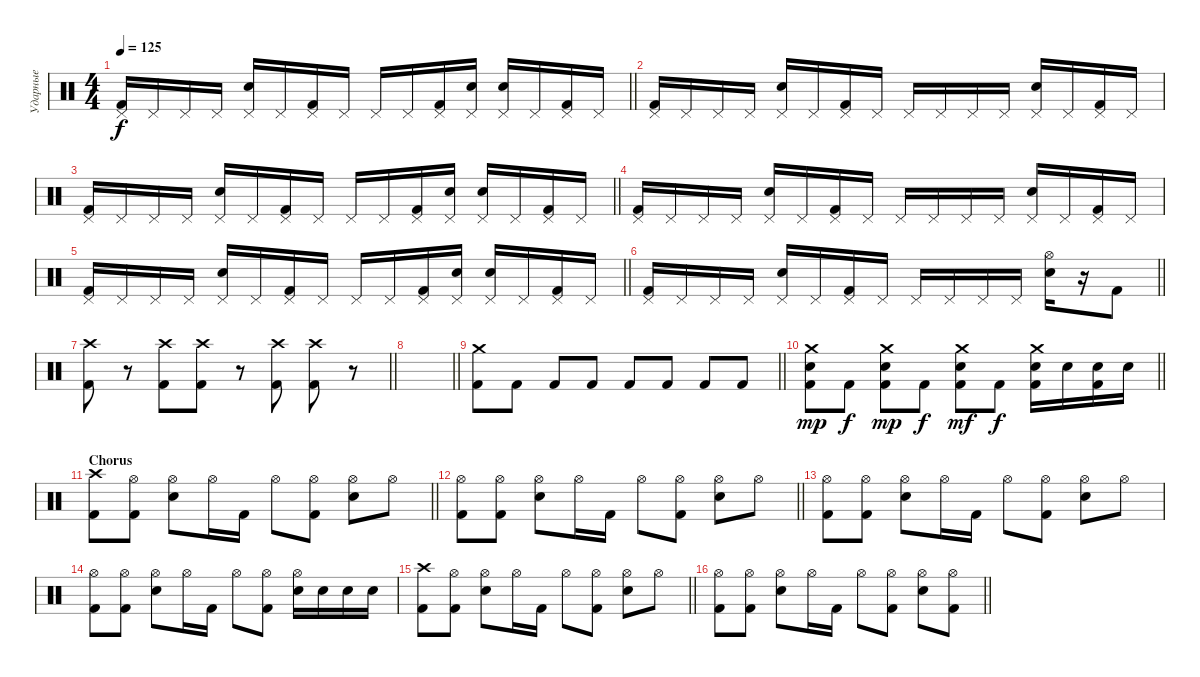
\track ("Ударные" "Ударные") {instrument percussion}
\staff {score}
\articulation defaults
\ts (4 4)
\tempo 125
\clef neutral
\barLineRight lightlight
\ks c
("Pedal Hi-Hat (hit)" "Kick (hit) 2").16{dy f} "Pedal Hi-Hat (hit)".16 "Pedal Hi-Hat (hit)".16 "Pedal Hi-Hat (hit)".16 ("Pedal Hi-Hat (hit)" "Electric Snare (hit)").16 "Pedal Hi-Hat (hit)".16 ("Pedal Hi-Hat (hit)" "Kick (hit) 2").16 "Pedal Hi-Hat (hit)".16 "Pedal Hi-Hat (hit)".16 "Pedal Hi-Hat (hit)".16 ("Pedal Hi-Hat (hit)" "Kick (hit) 2").16 ("Pedal Hi-Hat (hit)" "Electric Snare (hit)").16 ("Pedal Hi-Hat (hit)" "Electric Snare (hit)").16 "Pedal Hi-Hat (hit)".16 ("Pedal Hi-Hat (hit)" "Kick (hit) 2").16 "Pedal Hi-Hat (hit)".16 |
("Pedal Hi-Hat (hit)" "Kick (hit) 2").16 "Pedal Hi-Hat (hit)".16 "Pedal Hi-Hat (hit)".16 "Pedal Hi-Hat (hit)".16 ("Pedal Hi-Hat (hit)" "Electric Snare (hit)").16 "Pedal Hi-Hat (hit)".16 ("Pedal Hi-Hat (hit)" "Kick (hit) 2").16 "Pedal Hi-Hat (hit)".16 "Pedal Hi-Hat (hit)".16 "Pedal Hi-Hat (hit)".16 "Pedal Hi-Hat (hit)".16 "Pedal Hi-Hat (hit)".16 ("Pedal Hi-Hat (hit)" "Electric Snare (hit)").16 "Pedal Hi-Hat (hit)".16 ("Pedal Hi-Hat (hit)" "Kick (hit) 2").16 "Pedal Hi-Hat (hit)".16 |
\barLineRight lightlight
("Pedal Hi-Hat (hit)" "Kick (hit) 2").16 "Pedal Hi-Hat (hit)".16 "Pedal Hi-Hat (hit)".16 "Pedal Hi-Hat (hit)".16 ("Pedal Hi-Hat (hit)" "Electric Snare (hit)").16 "Pedal Hi-Hat (hit)".16 ("Pedal Hi-Hat (hit)" "Kick (hit) 2").16 "Pedal Hi-Hat (hit)".16 "Pedal Hi-Hat (hit)".16 "Pedal Hi-Hat (hit)".16 ("Pedal Hi-Hat (hit)" "Kick (hit) 2").16 ("Pedal Hi-Hat (hit)" "Electric Snare (hit)").16 ("Pedal Hi-Hat (hit)" "Electric Snare (hit)").16 "Pedal Hi-Hat (hit)".16 ("Pedal Hi-Hat (hit)" "Kick (hit) 2").16 "Pedal Hi-Hat (hit)".16 |
("Pedal Hi-Hat (hit)" "Kick (hit) 2").16 "Pedal Hi-Hat (hit)".16 "Pedal Hi-Hat (hit)".16 "Pedal Hi-Hat (hit)".16 ("Pedal Hi-Hat (hit)" "Electric Snare (hit)").16 "Pedal Hi-Hat (hit)".16 ("Pedal Hi-Hat (hit)" "Kick (hit) 2").16 "Pedal Hi-Hat (hit)".16 "Pedal Hi-Hat (hit)".16 "Pedal Hi-Hat (hit)".16 "Pedal Hi-Hat (hit)".16 "Pedal Hi-Hat (hit)".16 ("Pedal Hi-Hat (hit)" "Electric Snare (hit)").16 "Pedal Hi-Hat (hit)".16 ("Pedal Hi-Hat (hit)" "Kick (hit) 2").16 "Pedal Hi-Hat (hit)".16 |
\barLineRight lightlight
("Pedal Hi-Hat (hit)" "Kick (hit) 2").16 "Pedal Hi-Hat (hit)".16 "Pedal Hi-Hat (hit)".16 "Pedal Hi-Hat (hit)".16 ("Pedal Hi-Hat (hit)" "Electric Snare (hit)").16 "Pedal Hi-Hat (hit)".16 ("Pedal Hi-Hat (hit)" "Kick (hit) 2").16 "Pedal Hi-Hat (hit)".16 "Pedal Hi-Hat (hit)".16 "Pedal Hi-Hat (hit)".16 ("Pedal Hi-Hat (hit)" "Kick (hit) 2").16 ("Pedal Hi-Hat (hit)" "Electric Snare (hit)").16 ("Pedal Hi-Hat (hit)" "Electric Snare (hit)").16 "Pedal Hi-Hat (hit)".16 ("Pedal Hi-Hat (hit)" "Kick (hit) 2").16 "Pedal Hi-Hat (hit)".16 |
\barLineRight lightlight
("Pedal Hi-Hat (hit)" "Kick (hit) 2").16 "Pedal Hi-Hat (hit)".16 "Pedal Hi-Hat (hit)".16 "Pedal Hi-Hat (hit)".16 ("Pedal Hi-Hat (hit)" "Electric Snare (hit)").16 "Pedal Hi-Hat (hit)".16 ("Pedal Hi-Hat (hit)" "Kick (hit) 2").16 "Pedal Hi-Hat (hit)".16 "Pedal Hi-Hat (hit)".16 "Pedal Hi-Hat (hit)".16 "Pedal Hi-Hat (hit)".16 "Pedal Hi-Hat (hit)".16 ("Hi-Hat (open)" "Electric Snare (hit)").16 r.16 "Kick (hit) 2".8 |
\barLineRight lightlight
("Crash high (hit)" "Kick (hit) 2").8 r.8 ("Crash high (hit)" "Kick (hit) 2").8 ("Crash high (hit)" "Kick (hit) 2").8 r.8 ("Crash high (hit)" "Kick (hit) 2").8 ("Crash high (hit)" "Kick (hit) 2").8 r.8 |
\barLineRight lightlight
|
\barLineRight lightlight
("Crash medium (hit)" "Kick (hit) 2").8 "Kick (hit) 2".8 "Kick (hit) 2".8 "Kick (hit) 2".8 "Kick (hit) 2".8 "Kick (hit) 2".8 "Kick (hit) 2".8 "Kick (hit) 2".8 |
\barLineRight lightlight
("Crash medium (hit)" "Electric Snare (hit)" "Kick (hit) 2").8{dy mp} "Kick (hit) 2".8{dy f} ("Crash medium (hit)" "Electric Snare (hit)" "Kick (hit) 2").8{dy mp} "Kick (hit) 2".8{dy f} ("Crash medium (hit)" "Electric Snare (hit)" "Kick (hit) 2").8{dy mf} "Kick (hit) 2".8{dy f} ("Crash medium (hit)" "Electric Snare (hit)" "Kick (hit) 2").16 "Electric Snare (hit)".16 ("Electric Snare (hit)" "Kick (hit) 2").16 "Electric Snare (hit)".16 |
\section ("" "Chorus")
\barLineRight lightlight
("Crash high (hit)" "Kick (hit) 2").8 ("Hi-Hat (open)" "Kick (hit) 2").8 ("Hi-Hat (open)" "Electric Snare (hit)").8 "Hi-Hat (open)".16 "Kick (hit) 2".16 "Hi-Hat (open)".8 ("Hi-Hat (open)" "Kick (hit) 2").8 ("Hi-Hat (open)" "Electric Snare (hit)").8 "Hi-Hat (open)".8 |
\barLineRight lightlight
("Hi-Hat (open)" "Kick (hit) 2").8 ("Hi-Hat (open)" "Kick (hit) 2").8 ("Hi-Hat (open)" "Electric Snare (hit)").8 "Hi-Hat (open)".16 "Kick (hit) 2".16 "Hi-Hat (open)".8 ("Hi-Hat (open)" "Kick (hit) 2").8 ("Hi-Hat (open)" "Electric Snare (hit)").8 "Hi-Hat (open)".8 |
("Hi-Hat (open)" "Kick (hit) 2").8 ("Hi-Hat (open)" "Kick (hit) 2").8 ("Hi-Hat (open)" "Electric Snare (hit)").8 "Hi-Hat (open)".16 "Kick (hit) 2".16 "Hi-Hat (open)".8 ("Hi-Hat (open)" "Kick (hit) 2").8 ("Hi-Hat (open)" "Electric Snare (hit)").8 "Hi-Hat (open)".8 |
("Hi-Hat (open)" "Kick (hit) 2").8 ("Hi-Hat (open)" "Kick (hit) 2").8 ("Hi-Hat (open)" "Electric Snare (hit)").8 "Hi-Hat (open)".16 "Kick (hit) 2".16 "Hi-Hat (open)".8 ("Hi-Hat (open)" "Kick (hit) 2").8 ("Hi-Hat (open)" "Electric Snare (hit)").16 "Electric Snare (hit)".16 "Electric Snare (hit)".16 "Electric Snare (hit)".16 |
\barLineRight lightlight
("Crash high (hit)" "Kick (hit) 2").8 ("Hi-Hat (open)" "Kick (hit) 2").8 ("Hi-Hat (open)" "Electric Snare (hit)").8 "Hi-Hat (open)".16 "Kick (hit) 2".16 "Hi-Hat (open)".8 ("Hi-Hat (open)" "Kick (hit) 2").8 ("Hi-Hat (open)" "Electric Snare (hit)").8 "Hi-Hat (open)".8 |
\barLineRight lightlight
("Hi-Hat (open)" "Kick (hit) 2").8 ("Hi-Hat (open)" "Kick (hit) 2").8 ("Hi-Hat (open)" "Electric Snare (hit)").8 "Hi-Hat (open)".16 "Kick (hit) 2".16 "Hi-Hat (open)".8 ("Hi-Hat (open)" "Kick (hit) 2").8 ("Hi-Hat (open)" "Electric Snare (hit)").8 ("Hi-Hat (open)" "Kick (hit) 2").8
